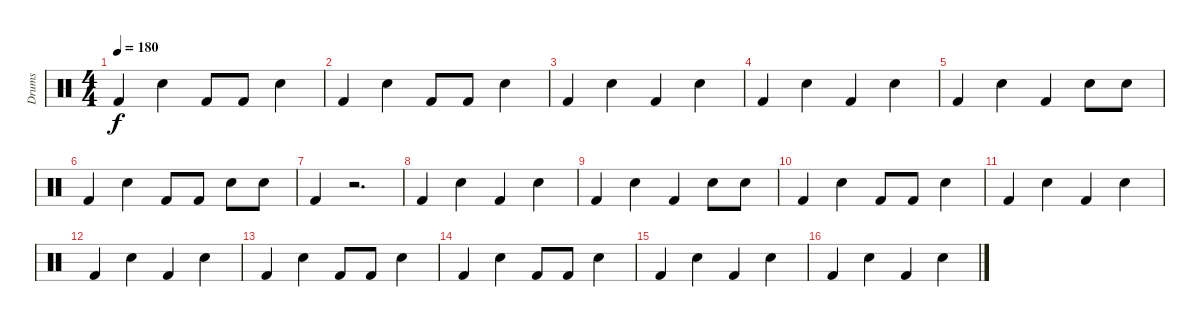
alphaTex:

\track ("Drums" "Drums") {instrument percussion}
\staff {score}
\articulation defaults
\ts (4 4)
\tempo 180
\clef neutral
\ks c "Kick (hit) 2".4{dy f} "Snare (hit) 2".4 "Kick (hit) 2".8 "Kick (hit) 2".8 "Snare (hit) 2".4
|
"Kick (hit) 2".4 "Snare (hit) 2".4 "Kick (hit) 2".8 "Kick (hit) 2".8 "Snare (hit) 2".4 |
"Kick (hit) 2".4 "Snare (hit) 2".4 "Kick (hit) 2".4 "Snare (hit) 2".4 |
"Kick (hit) 2".4 "Snare (hit) 2".4 "Kick (hit) 2".4 "Snare (hit) 2".4 |
"Kick (hit) 2".4 "Snare (hit) 2".4 "Kick (hit) 2".4 "Snare (hit) 2".8 "Snare (hit) 2".8 |
"Kick (hit) 2".4 "Snare (hit) 2".4 "Kick (hit) 2".8 "Kick (hit) 2".8 "Snare (hit) 2".8 "Snare (hit) 2".8 |
"Kick (hit) 2".4 r.2{d} |
"Kick (hit) 2".4 "Snare (hit) 2".4 "Kick (hit) 2".4 "Snare (hit) 2".4 |
"Kick (hit) 2".4 "Snare (hit) 2".4 "Kick (hit) 2".4 "Snare (hit) 2".8 "Snare (hit) 2".8 |
"Kick (hit) 2".4 "Snare (hit) 2".4 "Kick (hit) 2".8 "Kick (hit) 2".8 "Snare (hit) 2".4 |
"Kick (hit) 2".4 "Snare (hit) 2".4 "Kick (hit) 2".4 "Snare (hit) 2".4 |
"Kick (hit) 2".4 "Snare (hit) 2".4 "Kick (hit) 2".4 "Snare (hit) 2".4 |
"Kick (hit) 2".4 "Snare (hit) 2".4 "Kick (hit) 2".8 "Kick (hit) 2".8 "Snare (hit) 2".4 |
"Kick (hit) 2".4 "Snare (hit) 2".4 "Kick (hit) 2".8 "Kick (hit) 2".8 "Snare (hit) 2".4 |
"Kick (hit) 2".4 "Snare (hit) 2".4 "Kick (hit) 2".4 "Snare (hit) 2".4 |
"Kick (hit) 2".4 "Snare (hit) 2".4 "Kick (hit) 2".4 "Snare (hit) 2".4
